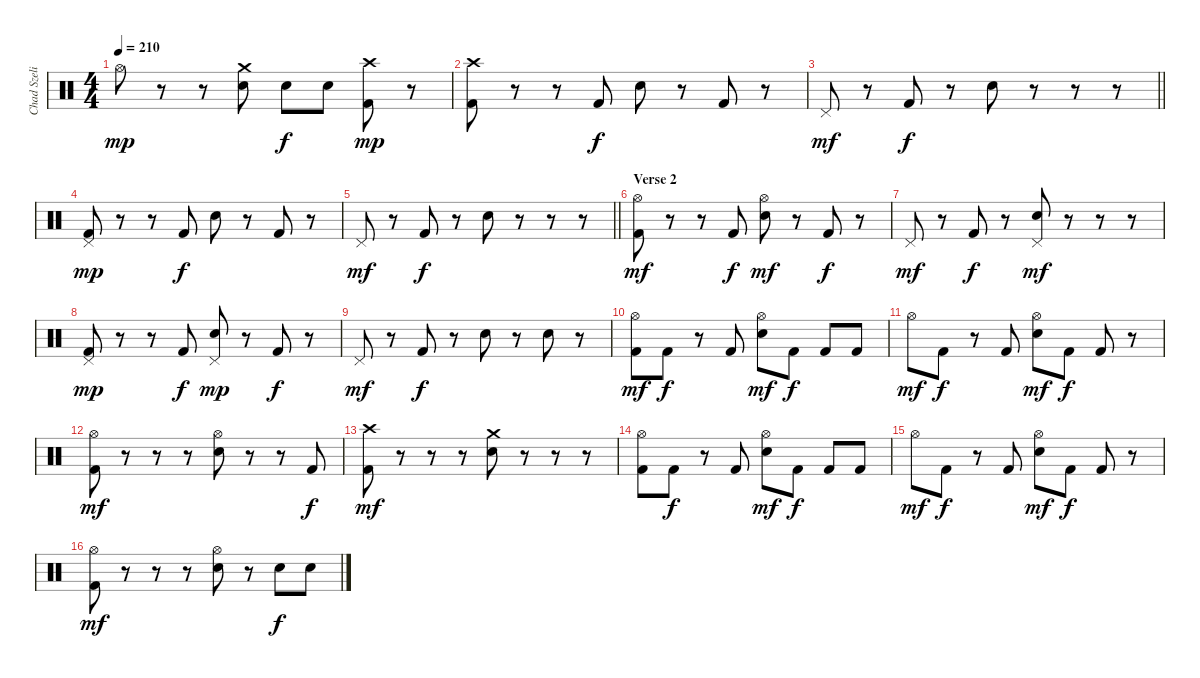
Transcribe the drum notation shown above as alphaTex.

\track ("Chad Szeliga" "Chad Szeli") {instrument percussion}
\staff {score}
\articulation defaults
\ts (4 4)
\tempo 210
\clef neutral
\ks c "Hi-Hat (open)".8{dy mp}
r.8 r.8 ("Snare (hit) 2" "Crash medium (hit)").8 "Snare (hit) 2".8{dy f} "Snare (hit) 2".8 ("Kick (hit) 2" "Crash high (hit)").8{dy mp} r.8 |
("Kick (hit) 2" "Crash high (hit)").8 r.8 r.8 "Kick (hit) 2".8{dy f} "Snare (hit) 2".8 r.8 "Kick (hit) 2".8 r.8 |
\barLineRight lightlight "Pedal Hi-Hat (hit)".8{dy mf}
r.8 "Kick (hit) 2".8{dy f} r.8 "Snare (hit) 2".8 r.8 r.8 r.8 |
("Kick (hit) 2" "Pedal Hi-Hat (hit)").8{dy mp} r.8 r.8 "Kick (hit) 2".8{dy f} "Snare (hit) 2".8 r.8 "Kick (hit) 2".8 r.8 |
\barLineRight lightlight "Pedal Hi-Hat (hit)".8{dy mf}
r.8 "Kick (hit) 2".8{dy f} r.8 "Snare (hit) 2".8 r.8 r.8 r.8 |
\section ("" "Verse 2")
("Kick (hit) 2" "Hi-Hat (open)").8{dy mf} r.8 r.8 "Kick (hit) 2".8{dy f} ("Snare (hit) 2" "Hi-Hat (open)").8{dy mf} r.8 "Kick (hit) 2".8{dy f} r.8 |
"Pedal Hi-Hat (hit)".8{dy mf} r.8 "Kick (hit) 2".8{dy f} r.8 ("Snare (hit) 2" "Pedal Hi-Hat (hit)").8{dy mf} r.8 r.8 r.8 |
("Kick (hit) 2" "Pedal Hi-Hat (hit)").8{dy mp} r.8 r.8 "Kick (hit) 2".8{dy f} ("Snare (hit) 2" "Pedal Hi-Hat (hit)").8{dy mp} r.8 "Kick (hit) 2".8{dy f} r.8 |
"Pedal Hi-Hat (hit)".8{dy mf} r.8 "Kick (hit) 2".8{dy f} r.8 "Snare (hit) 2".8 r.8 "Snare (hit) 2".8 r.8 |
("Kick (hit) 2" "Hi-Hat (open)").8{dy mf} "Kick (hit) 2".8{dy f} r.8 "Kick (hit) 2".8 ("Snare (hit) 2" "Hi-Hat (open)").8{dy mf} "Kick (hit) 2".8{dy f} "Kick (hit) 2".8 "Kick (hit) 2".8 |
"Hi-Hat (open)".8{dy mf} "Kick (hit) 2".8{dy f} r.8 "Kick (hit) 2".8 ("Snare (hit) 2" "Hi-Hat (open)").8{dy mf} "Kick (hit) 2".8{dy f} "Kick (hit) 2".8 r.8 |
("Kick (hit) 2" "Hi-Hat (open)").8{dy mf} r.8 r.8 r.8 ("Snare (hit) 2" "Hi-Hat (open)").8 r.8 r.8 "Kick (hit) 2".8{dy f} |
("Kick (hit) 2" "Crash high (hit)").8{dy mf} r.8 r.8 r.8 ("Snare (hit) 2" "Crash medium (hit)").8 r.8 r.8 r.8 |
("Kick (hit) 2" "Hi-Hat (open)").8 "Kick (hit) 2".8{dy f} r.8 "Kick (hit) 2".8 ("Snare (hit) 2" "Hi-Hat (open)").8{dy mf} "Kick (hit) 2".8{dy f} "Kick (hit) 2".8 "Kick (hit) 2".8 |
"Hi-Hat (open)".8{dy mf} "Kick (hit) 2".8{dy f} r.8 "Kick (hit) 2".8 ("Snare (hit) 2" "Hi-Hat (open)").8{dy mf} "Kick (hit) 2".8{dy f} "Kick (hit) 2".8 r.8 |
("Kick (hit) 2" "Hi-Hat (open)").8{dy mf} r.8 r.8 r.8 ("Snare (hit) 2" "Hi-Hat (open)").8 r.8 "Snare (hit) 2".8{dy f} "Snare (hit) 2".8
